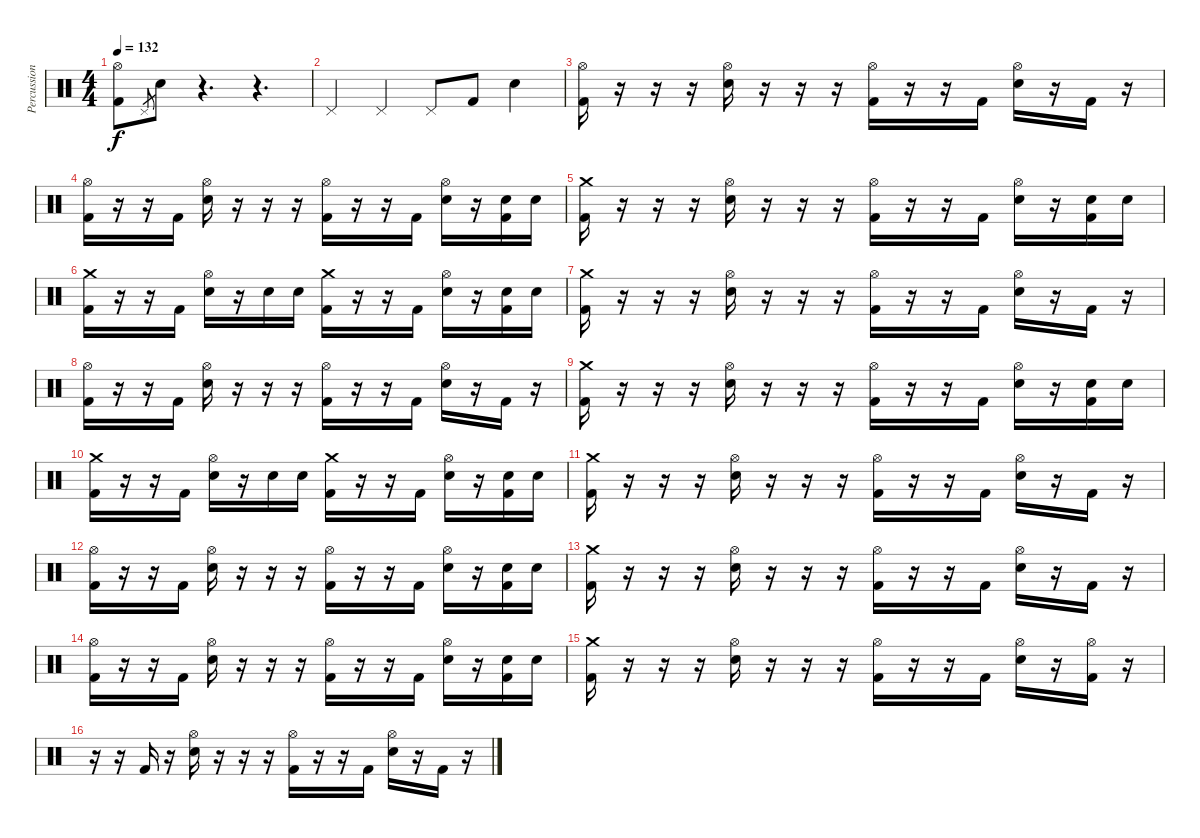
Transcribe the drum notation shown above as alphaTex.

\track ("Percussion" "Percussion") {instrument percussion}
\staff {score}
\articulation defaults
\ts (4 4)
\tempo 132
\clef neutral
\ks c
("Hi-Hat (open)" "Kick (hit) 2").8{dy f} "Pedal Hi-Hat (hit)".8{gr} "Snare (hit)".8 r.4{d} r.4{d} |
"Pedal Hi-Hat (hit)".4 "Pedal Hi-Hat (hit)".4 "Pedal Hi-Hat (hit)".8 "Kick (hit) 2".8 "Snare (hit) 2".4 |
("Hi-Hat (open)" "Kick (hit) 2").16 r.16 r.16 r.16 ("Hi-Hat (open)" "Snare (hit) 2").16 r.16 r.16 r.16 ("Hi-Hat (open)" "Kick (hit) 2").16 r.16 r.16 "Kick (hit) 2".16 ("Hi-Hat (open)" "Snare (hit) 2").16 r.16 "Kick (hit) 2".16 r.16 |
("Hi-Hat (open)" "Kick (hit) 2").16 r.16 r.16 "Kick (hit) 2".16 ("Hi-Hat (open)" "Snare (hit) 2").16 r.16 r.16 r.16 ("Hi-Hat (open)" "Kick (hit) 2").16 r.16 r.16 "Kick (hit) 2".16 ("Hi-Hat (open)" "Snare (hit) 2").16 r.16 ("Kick (hit) 2" "Snare (hit) 2").16 "Snare (hit) 2".16 |
("Crash medium (hit)" "Kick (hit) 2").16 r.16 r.16 r.16 ("Hi-Hat (open)" "Snare (hit) 2").16 r.16 r.16 r.16 ("Hi-Hat (open)" "Kick (hit) 2").16 r.16 r.16 "Kick (hit) 2".16 ("Hi-Hat (open)" "Snare (hit) 2").16 r.16 ("Kick (hit) 2" "Snare (hit) 2").16 "Snare (hit) 2".16 |
("Crash medium (hit)" "Kick (hit) 2").16 r.16 r.16 "Kick (hit) 2".16 ("Hi-Hat (open)" "Snare (hit) 2").16 r.16 "Snare (hit) 2".16 "Snare (hit) 2".16 ("Crash medium (hit)" "Kick (hit) 2").16 r.16 r.16 "Kick (hit) 2".16 ("Hi-Hat (open)" "Snare (hit) 2").16 r.16 ("Kick (hit) 2" "Snare (hit) 2").16 "Snare (hit) 2".16 |
("Crash medium (hit)" "Kick (hit) 2").16 r.16 r.16 r.16 ("Hi-Hat (open)" "Snare (hit) 2").16 r.16 r.16 r.16 ("Hi-Hat (open)" "Kick (hit) 2").16 r.16 r.16 "Kick (hit) 2".16 ("Hi-Hat (open)" "Snare (hit) 2").16 r.16 "Kick (hit) 2".16 r.16 |
("Hi-Hat (open)" "Kick (hit) 2").16 r.16 r.16 "Kick (hit) 2".16 ("Hi-Hat (open)" "Snare (hit) 2").16 r.16 r.16 r.16 ("Hi-Hat (open)" "Kick (hit) 2").16 r.16 r.16 "Kick (hit) 2".16 ("Hi-Hat (open)" "Snare (hit) 2").16 r.16 "Kick (hit) 2".16 r.16 |
("Crash medium (hit)" "Kick (hit) 2").16 r.16 r.16 r.16 ("Hi-Hat (open)" "Snare (hit) 2").16 r.16 r.16 r.16 ("Hi-Hat (open)" "Kick (hit) 2").16 r.16 r.16 "Kick (hit) 2".16 ("Hi-Hat (open)" "Snare (hit) 2").16 r.16 ("Kick (hit) 2" "Snare (hit) 2").16 "Snare (hit) 2".16 |
("Crash medium (hit)" "Kick (hit) 2").16 r.16 r.16 "Kick (hit) 2".16 ("Hi-Hat (open)" "Snare (hit) 2").16 r.16 "Snare (hit) 2".16 "Snare (hit) 2".16 ("Crash medium (hit)" "Kick (hit) 2").16 r.16 r.16 "Kick (hit) 2".16 ("Hi-Hat (open)" "Snare (hit) 2").16 r.16 ("Kick (hit) 2" "Snare (hit) 2").16 "Snare (hit) 2".16 |
("Crash medium (hit)" "Kick (hit) 2").16 r.16 r.16 r.16 ("Hi-Hat (open)" "Snare (hit) 2").16 r.16 r.16 r.16 ("Hi-Hat (open)" "Kick (hit) 2").16 r.16 r.16 "Kick (hit) 2".16 ("Hi-Hat (open)" "Snare (hit) 2").16 r.16 "Kick (hit) 2".16 r.16 |
("Hi-Hat (open)" "Kick (hit) 2").16 r.16 r.16 "Kick (hit) 2".16 ("Hi-Hat (open)" "Snare (hit) 2").16 r.16 r.16 r.16 ("Hi-Hat (open)" "Kick (hit) 2").16 r.16 r.16 "Kick (hit) 2".16 ("Hi-Hat (open)" "Snare (hit) 2").16 r.16 ("Kick (hit) 2" "Snare (hit) 2").16 "Snare (hit) 2".16 |
("Crash medium (hit)" "Kick (hit) 2").16 r.16 r.16 r.16 ("Hi-Hat (open)" "Snare (hit) 2").16 r.16 r.16 r.16 ("Hi-Hat (open)" "Kick (hit) 2").16 r.16 r.16 "Kick (hit) 2".16 ("Hi-Hat (open)" "Snare (hit) 2").16 r.16 "Kick (hit) 2".16 r.16 |
("Hi-Hat (open)" "Kick (hit) 2").16 r.16 r.16 "Kick (hit) 2".16 ("Hi-Hat (open)" "Snare (hit) 2").16 r.16 r.16 r.16 ("Hi-Hat (open)" "Kick (hit) 2").16 r.16 r.16 "Kick (hit) 2".16 ("Hi-Hat (open)" "Snare (hit) 2").16 r.16 ("Kick (hit) 2" "Snare (hit) 2").16 "Snare (hit) 2".16 |
("Crash medium (hit)" "Kick (hit) 2").16 r.16 r.16 r.16 ("Hi-Hat (open)" "Snare (hit) 2").16 r.16 r.16 r.16 ("Hi-Hat (open)" "Kick (hit) 2").16 r.16 r.16 "Kick (hit) 2".16 ("Hi-Hat (open)" "Snare (hit) 2").16 r.16 ("Hi-Hat (open)" "Kick (hit) 2").16 r.16 |
r.16 r.16 "Kick (hit) 2".16 r.16 ("Hi-Hat (open)" "Snare (hit) 2").16 r.16 r.16 r.16 ("Hi-Hat (open)" "Kick (hit) 2").16 r.16 r.16 "Kick (hit) 2".16 ("Hi-Hat (open)" "Snare (hit) 2").16 r.16 "Kick (hit) 2".16 r.16
